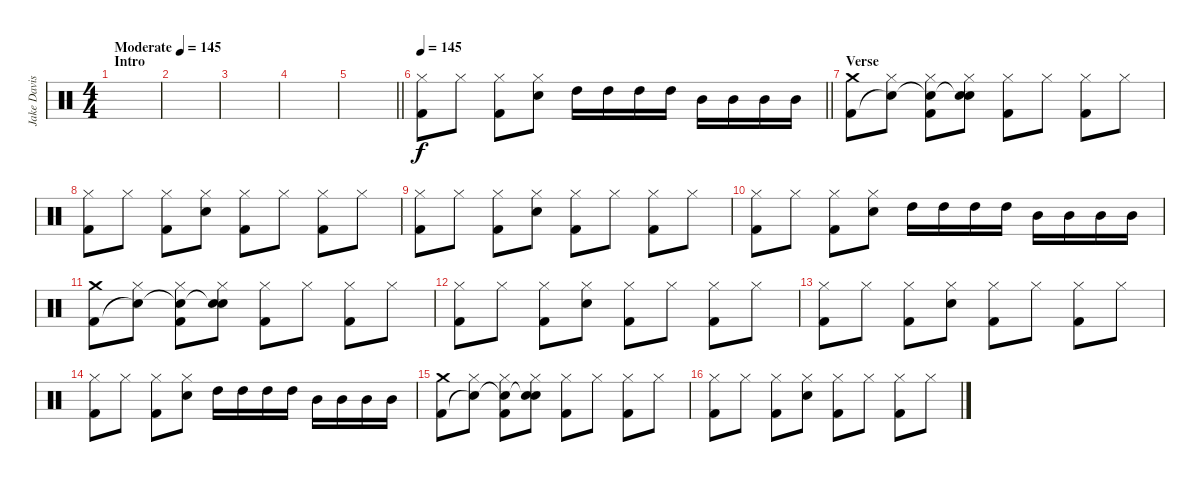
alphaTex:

\track ("Jake Davison (Drums)" "Jake Davis") {instrument percussion}
\staff {score}
\articulation defaults
\ts (4 4)
\section ("" "Intro")
\tempo (145 "Moderate")
\tempo 120
\tempo (145 "Moderate")
\clef neutral
\ks c
|
|
|
|
\barLineRight lightlight
|
\tempo 145
\barLineRight lightlight
("Hi-Hat (closed)" "Kick (hit) 2").8 "Hi-Hat (closed)".8 ("Hi-Hat (closed)" "Kick (hit) 2").8 ("Hi-Hat (closed)" "Electric Snare (hit)").8 "High Tom (hit)".16 "High Tom (hit)".16 "High Tom (hit)".16 "High Tom (hit)".16 "Mid Tom (hit)".16 "Mid Tom (hit)".16 "Mid Tom (hit)".16 "Mid Tom (hit)".16 |
\section ("" "Verse")
("Crash medium (hit)" "Kick (hit) 2").8 ("Hi-Hat (closed)" "Snare (hit)"{t}).8 ("Hi-Hat (closed)" "Snare (hit)"{t} "Kick (hit) 2").8 ("Hi-Hat (closed)" "Snare (hit)"{t} "Electric Snare (hit)").8 ("Hi-Hat (closed)" "Kick (hit) 2").8 "Hi-Hat (closed)".8 ("Hi-Hat (closed)" "Kick (hit) 2").8 "Hi-Hat (closed)".8 |
("Hi-Hat (closed)" "Kick (hit) 2").8 "Hi-Hat (closed)".8 ("Hi-Hat (closed)" "Kick (hit) 2").8 ("Hi-Hat (closed)" "Electric Snare (hit)").8 ("Hi-Hat (closed)" "Kick (hit) 2").8 "Hi-Hat (closed)".8 ("Hi-Hat (closed)" "Kick (hit) 2").8 "Hi-Hat (closed)".8 |
("Hi-Hat (closed)" "Kick (hit) 2").8 "Hi-Hat (closed)".8 ("Hi-Hat (closed)" "Kick (hit) 2").8 ("Hi-Hat (closed)" "Electric Snare (hit)").8 ("Hi-Hat (closed)" "Kick (hit) 2").8 "Hi-Hat (closed)".8 ("Hi-Hat (closed)" "Kick (hit) 2").8 "Hi-Hat (closed)".8 |
("Hi-Hat (closed)" "Kick (hit) 2").8 "Hi-Hat (closed)".8 ("Hi-Hat (closed)" "Kick (hit) 2").8 ("Hi-Hat (closed)" "Electric Snare (hit)").8 "High Tom (hit)".16 "High Tom (hit)".16 "High Tom (hit)".16 "High Tom (hit)".16 "Mid Tom (hit)".16 "Mid Tom (hit)".16 "Mid Tom (hit)".16 "Mid Tom (hit)".16 |
("Crash medium (hit)" "Kick (hit) 2").8 ("Hi-Hat (closed)" "Snare (hit)"{t}).8 ("Hi-Hat (closed)" "Snare (hit)"{t} "Kick (hit) 2").8 ("Hi-Hat (closed)" "Snare (hit)"{t} "Electric Snare (hit)").8 ("Hi-Hat (closed)" "Kick (hit) 2").8 "Hi-Hat (closed)".8 ("Hi-Hat (closed)" "Kick (hit) 2").8 "Hi-Hat (closed)".8 |
("Hi-Hat (closed)" "Kick (hit) 2").8 "Hi-Hat (closed)".8 ("Hi-Hat (closed)" "Kick (hit) 2").8 ("Hi-Hat (closed)" "Electric Snare (hit)").8 ("Hi-Hat (closed)" "Kick (hit) 2").8 "Hi-Hat (closed)".8 ("Hi-Hat (closed)" "Kick (hit) 2").8 "Hi-Hat (closed)".8 |
("Hi-Hat (closed)" "Kick (hit) 2").8 "Hi-Hat (closed)".8 ("Hi-Hat (closed)" "Kick (hit) 2").8 ("Hi-Hat (closed)" "Electric Snare (hit)").8 ("Hi-Hat (closed)" "Kick (hit) 2").8 "Hi-Hat (closed)".8 ("Hi-Hat (closed)" "Kick (hit) 2").8 "Hi-Hat (closed)".8 |
("Hi-Hat (closed)" "Kick (hit) 2").8 "Hi-Hat (closed)".8 ("Hi-Hat (closed)" "Kick (hit) 2").8 ("Hi-Hat (closed)" "Electric Snare (hit)").8 "High Tom (hit)".16 "High Tom (hit)".16 "High Tom (hit)".16 "High Tom (hit)".16 "Mid Tom (hit)".16 "Mid Tom (hit)".16 "Mid Tom (hit)".16 "Mid Tom (hit)".16 |
("Crash medium (hit)" "Kick (hit) 2").8 ("Hi-Hat (closed)" "Snare (hit)"{t}).8 ("Hi-Hat (closed)" "Snare (hit)"{t} "Kick (hit) 2").8 ("Hi-Hat (closed)" "Snare (hit)"{t} "Electric Snare (hit)").8 ("Hi-Hat (closed)" "Kick (hit) 2").8 "Hi-Hat (closed)".8 ("Hi-Hat (closed)" "Kick (hit) 2").8 "Hi-Hat (closed)".8 |
("Hi-Hat (closed)" "Kick (hit) 2").8 "Hi-Hat (closed)".8 ("Hi-Hat (closed)" "Kick (hit) 2").8 ("Hi-Hat (closed)" "Electric Snare (hit)").8 ("Hi-Hat (closed)" "Kick (hit) 2").8 "Hi-Hat (closed)".8 ("Hi-Hat (closed)" "Kick (hit) 2").8 "Hi-Hat (closed)".8
